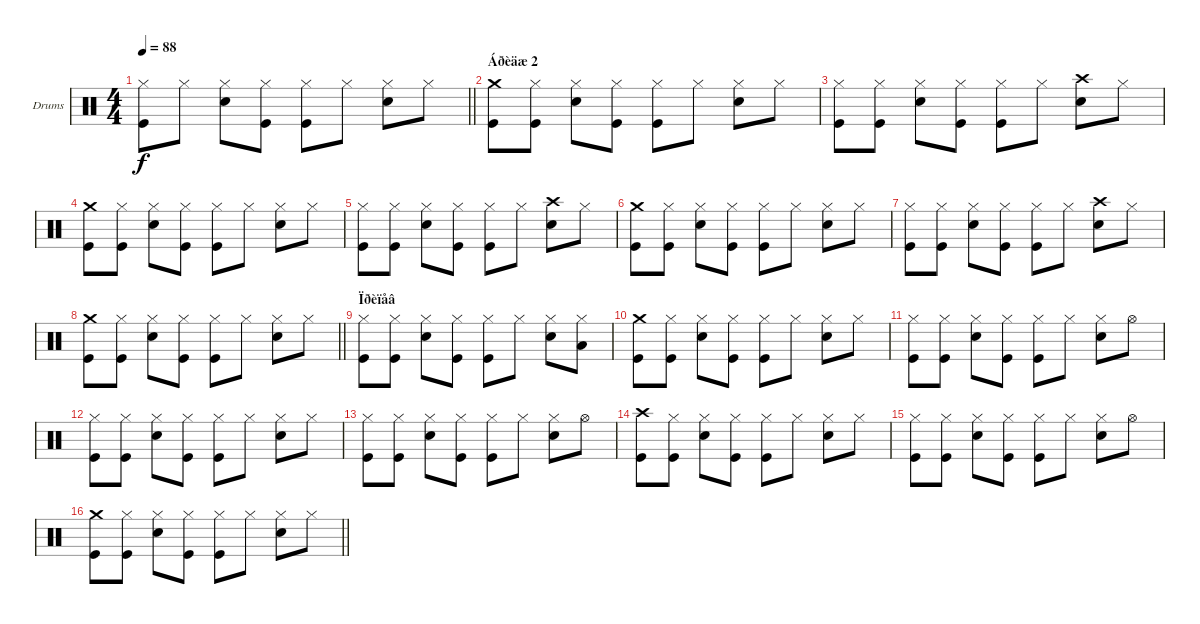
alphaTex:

\bracketExtendMode groupsimilarinstruments
\firstSystemTrackNameOrientation horizontal
\otherSystemsTrackNameOrientation horizontal
\track ("Drumkit" "Drums") {instrument percussion}
\staff {score}
\articulation defaults
\ts (4 4)
\tempo 88
\clef neutral
\barLineRight lightlight
\ks c
("Kick (hit)" "Hi-Hat (closed)").8{dy f} "Hi-Hat (closed)".8 ("Snare (hit) 2" "Hi-Hat (closed)").8 ("Kick (hit)" "Hi-Hat (closed)").8 ("Kick (hit)" "Hi-Hat (closed)").8 "Hi-Hat (closed)".8 ("Snare (hit) 2" "Hi-Hat (closed)").8 "Hi-Hat (closed)".8 |
\section ("" "Áðèäæ 2")
("Kick (hit)" "Crash medium (hit)").8 ("Kick (hit)" "Hi-Hat (closed)").8 ("Snare (hit) 2" "Hi-Hat (closed)").8 ("Kick (hit)" "Hi-Hat (closed)").8 ("Kick (hit)" "Hi-Hat (closed)").8 "Hi-Hat (closed)".8 ("Snare (hit) 2" "Hi-Hat (closed)").8 "Hi-Hat (closed)".8 |
("Kick (hit)" "Hi-Hat (closed)").8 ("Kick (hit)" "Hi-Hat (closed)").8 ("Snare (hit) 2" "Hi-Hat (closed)").8 ("Kick (hit)" "Hi-Hat (closed)").8 ("Kick (hit)" "Hi-Hat (closed)").8 "Hi-Hat (closed)".8 ("Snare (hit) 2" "Crash high (hit)").8 "Hi-Hat (closed)".8 |
("Kick (hit)" "Crash medium (hit)").8 ("Kick (hit)" "Hi-Hat (closed)").8 ("Snare (hit) 2" "Hi-Hat (closed)").8 ("Kick (hit)" "Hi-Hat (closed)").8 ("Kick (hit)" "Hi-Hat (closed)").8 "Hi-Hat (closed)".8 ("Snare (hit) 2" "Hi-Hat (closed)").8 "Hi-Hat (closed)".8 |
("Kick (hit)" "Hi-Hat (closed)").8 ("Kick (hit)" "Hi-Hat (closed)").8 ("Snare (hit) 2" "Hi-Hat (closed)").8 ("Kick (hit)" "Hi-Hat (closed)").8 ("Kick (hit)" "Hi-Hat (closed)").8 "Hi-Hat (closed)".8 ("Snare (hit) 2" "Crash high (hit)").8 "Hi-Hat (closed)".8 |
("Kick (hit)" "Crash medium (hit)").8 ("Kick (hit)" "Hi-Hat (closed)").8 ("Snare (hit) 2" "Hi-Hat (closed)").8 ("Kick (hit)" "Hi-Hat (closed)").8 ("Kick (hit)" "Hi-Hat (closed)").8 "Hi-Hat (closed)".8 ("Snare (hit) 2" "Hi-Hat (closed)").8 "Hi-Hat (closed)".8 |
("Kick (hit)" "Hi-Hat (closed)").8 ("Kick (hit)" "Hi-Hat (closed)").8 ("Snare (hit) 2" "Hi-Hat (closed)").8 ("Kick (hit)" "Hi-Hat (closed)").8 ("Kick (hit)" "Hi-Hat (closed)").8 "Hi-Hat (closed)".8 ("Snare (hit) 2" "Crash high (hit)").8 "Hi-Hat (closed)".8 |
\barLineRight lightlight
("Kick (hit)" "Crash medium (hit)").8 ("Kick (hit)" "Hi-Hat (closed)").8 ("Snare (hit) 2" "Hi-Hat (closed)").8 ("Kick (hit)" "Hi-Hat (closed)").8 ("Kick (hit)" "Hi-Hat (closed)").8 "Hi-Hat (closed)".8 ("Snare (hit) 2" "Hi-Hat (closed)").8 "Hi-Hat (closed)".8 |
\section ("" "Ïðèïåâ")
("Kick (hit)" "Hi-Hat (closed)").8 ("Kick (hit)" "Hi-Hat (closed)").8 ("Snare (hit) 2" "Hi-Hat (closed)").8 ("Kick (hit)" "Hi-Hat (closed)").8 ("Kick (hit)" "Hi-Hat (closed)").8 "Hi-Hat (closed)".8 ("Snare (hit) 2" "Hi-Hat (closed)").8 ("Low Tom (hit)" "Hi-Hat (closed)").8 |
("Kick (hit)" "Crash medium (hit)").8 ("Kick (hit)" "Hi-Hat (closed)").8 ("Snare (hit) 2" "Hi-Hat (closed)").8 ("Kick (hit)" "Hi-Hat (closed)").8 ("Kick (hit)" "Hi-Hat (closed)").8 "Hi-Hat (closed)".8 ("Snare (hit) 2" "Hi-Hat (closed)").8 "Hi-Hat (closed)".8 |
("Kick (hit)" "Hi-Hat (closed)").8 ("Kick (hit)" "Hi-Hat (closed)").8 ("Snare (hit) 2" "Hi-Hat (closed)").8 ("Kick (hit)" "Hi-Hat (closed)").8 ("Kick (hit)" "Hi-Hat (closed)").8 "Hi-Hat (closed)".8 ("Snare (hit) 2" "Hi-Hat (closed)").8 "Hi-Hat (open)".8 |
("Kick (hit)" "Hi-Hat (closed)").8 ("Kick (hit)" "Hi-Hat (closed)").8 ("Snare (hit) 2" "Hi-Hat (closed)").8 ("Kick (hit)" "Hi-Hat (closed)").8 ("Kick (hit)" "Hi-Hat (closed)").8 "Hi-Hat (closed)".8 ("Snare (hit) 2" "Hi-Hat (closed)").8 "Hi-Hat (closed)".8 |
("Kick (hit)" "Hi-Hat (closed)").8 ("Kick (hit)" "Hi-Hat (closed)").8 ("Snare (hit) 2" "Hi-Hat (closed)").8 ("Kick (hit)" "Hi-Hat (closed)").8 ("Kick (hit)" "Hi-Hat (closed)").8 "Hi-Hat (closed)".8 ("Snare (hit) 2" "Hi-Hat (closed)").8 "Hi-Hat (open)".8 |
("Kick (hit)" "Crash high (hit)").8 ("Kick (hit)" "Hi-Hat (closed)").8 ("Snare (hit) 2" "Hi-Hat (closed)").8 ("Kick (hit)" "Hi-Hat (closed)").8 ("Kick (hit)" "Hi-Hat (closed)").8 "Hi-Hat (closed)".8 ("Snare (hit) 2" "Hi-Hat (closed)").8 "Hi-Hat (closed)".8 |
("Kick (hit)" "Hi-Hat (closed)").8 ("Kick (hit)" "Hi-Hat (closed)").8 ("Snare (hit) 2" "Hi-Hat (closed)").8 ("Kick (hit)" "Hi-Hat (closed)").8 ("Kick (hit)" "Hi-Hat (closed)").8 "Hi-Hat (closed)".8 ("Snare (hit) 2" "Hi-Hat (closed)").8 "Hi-Hat (open)".8 |
\barLineRight lightlight
("Kick (hit)" "Crash medium (hit)").8 ("Kick (hit)" "Hi-Hat (closed)").8 ("Snare (hit) 2" "Hi-Hat (closed)").8 ("Kick (hit)" "Hi-Hat (closed)").8 ("Kick (hit)" "Hi-Hat (closed)").8 "Hi-Hat (closed)".8 ("Snare (hit) 2" "Hi-Hat (closed)").8 "Hi-Hat (closed)".8
